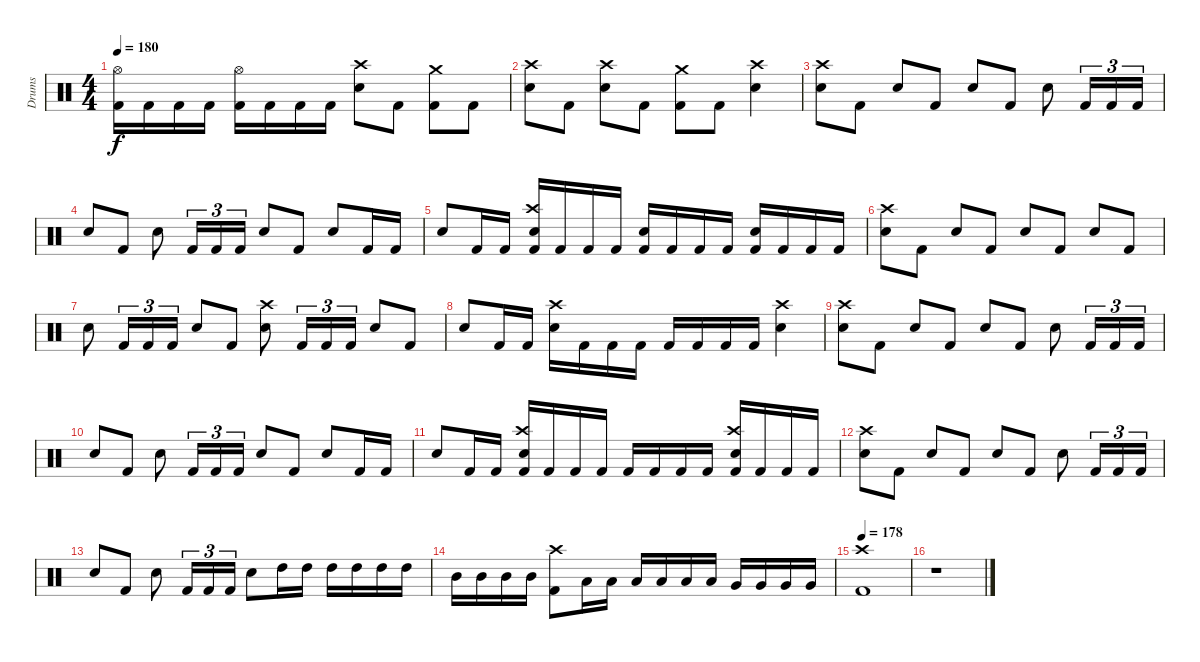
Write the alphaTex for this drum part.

\track ("Drums" "Drums") {instrument percussion}
\staff {score}
\articulation defaults
\ts (4 4)
\tempo 180
\clef neutral
\ks c
("Hi-Hat (open)" "Kick (hit) 2").16{dy f} "Kick (hit) 2".16 "Kick (hit) 2".16 "Kick (hit) 2".16 ("Hi-Hat (open)" "Kick (hit) 2").16 "Kick (hit) 2".16 "Kick (hit) 2".16 "Kick (hit) 2".16 ("Crash high (hit)" "Electric Snare (hit)").8 "Kick (hit) 2".8 ("Crash medium (hit)" "Kick (hit) 2").8 "Kick (hit) 2".8 |
("Crash high (hit)" "Electric Snare (hit)").8 "Kick (hit) 2".8 ("Crash high (hit)" "Electric Snare (hit)").8 "Kick (hit) 2".8 ("Crash medium (hit)" "Kick (hit) 2").8 "Kick (hit) 2".8 ("Crash high (hit)" "Electric Snare (hit)").4 |
("Crash high (hit)" "Electric Snare (hit)").8 "Kick (hit) 2".8 "Electric Snare (hit)".8 "Kick (hit) 2".8 "Electric Snare (hit)".8 "Kick (hit) 2".8 "Electric Snare (hit)".8 "Kick (hit) 2".16{tu (3 2)} "Kick (hit) 2".16{tu (3 2)} "Kick (hit) 2".16{tu (3 2)} |
"Electric Snare (hit)".8 "Kick (hit) 2".8 "Electric Snare (hit)".8 "Kick (hit) 2".16{tu (3 2)} "Kick (hit) 2".16{tu (3 2)} "Kick (hit) 2".16{tu (3 2)} "Electric Snare (hit)".8 "Kick (hit) 2".8 "Electric Snare (hit)".8 "Kick (hit) 2".16 "Kick (hit) 2".16 |
"Electric Snare (hit)".8 "Kick (hit) 2".16 "Kick (hit) 2".16 ("Crash high (hit)" "Electric Snare (hit)" "Kick (hit) 2").16 "Kick (hit) 2".16 "Kick (hit) 2".16 "Kick (hit) 2".16 ("Electric Snare (hit)" "Kick (hit) 2").16 "Kick (hit) 2".16 "Kick (hit) 2".16 "Kick (hit) 2".16 ("Electric Snare (hit)" "Kick (hit) 2").16 "Kick (hit) 2".16 "Kick (hit) 2".16 "Kick (hit) 2".16 |
("Crash high (hit)" "Electric Snare (hit)").8 "Kick (hit) 2".8 "Electric Snare (hit)".8 "Kick (hit) 2".8 "Electric Snare (hit)".8 "Kick (hit) 2".8 "Electric Snare (hit)".8 "Kick (hit) 2".8 |
"Electric Snare (hit)".8 "Kick (hit) 2".16{tu (3 2)} "Kick (hit) 2".16{tu (3 2)} "Kick (hit) 2".16{tu (3 2)} "Electric Snare (hit)".8 "Kick (hit) 2".8 ("Crash high (hit)" "Electric Snare (hit)").8 "Kick (hit) 2".16{tu (3 2)} "Kick (hit) 2".16{tu (3 2)} "Kick (hit) 2".16{tu (3 2)} "Electric Snare (hit)".8 "Kick (hit) 2".8 |
"Electric Snare (hit)".8 "Kick (hit) 2".16 "Kick (hit) 2".16 ("Crash high (hit)" "Electric Snare (hit)").16 "Kick (hit) 2".16 "Kick (hit) 2".16 "Kick (hit) 2".16 "Kick (hit) 2".16 "Kick (hit) 2".16 "Kick (hit) 2".16 "Kick (hit) 2".16 ("Crash high (hit)" "Electric Snare (hit)").4 |
("Crash high (hit)" "Electric Snare (hit)").8 "Kick (hit) 2".8 "Electric Snare (hit)".8 "Kick (hit) 2".8 "Electric Snare (hit)".8 "Kick (hit) 2".8 "Electric Snare (hit)".8 "Kick (hit) 2".16{tu (3 2)} "Kick (hit) 2".16{tu (3 2)} "Kick (hit) 2".16{tu (3 2)} |
"Electric Snare (hit)".8 "Kick (hit) 2".8 "Electric Snare (hit)".8 "Kick (hit) 2".16{tu (3 2)} "Kick (hit) 2".16{tu (3 2)} "Kick (hit) 2".16{tu (3 2)} "Electric Snare (hit)".8 "Kick (hit) 2".8 "Electric Snare (hit)".8 "Kick (hit) 2".16 "Kick (hit) 2".16 |
"Electric Snare (hit)".8 "Kick (hit) 2".16 "Kick (hit) 2".16 ("Crash high (hit)" "Electric Snare (hit)" "Kick (hit) 2").16 "Kick (hit) 2".16 "Kick (hit) 2".16 "Kick (hit) 2".16 "Kick (hit) 2".16 "Kick (hit) 2".16 "Kick (hit) 2".16 "Kick (hit) 2".16 ("Crash high (hit)" "Electric Snare (hit)" "Kick (hit) 2").16 "Kick (hit) 2".16 "Kick (hit) 2".16 "Kick (hit) 2".16 |
("Crash high (hit)" "Electric Snare (hit)").8 "Kick (hit) 2".8 "Electric Snare (hit)".8 "Kick (hit) 2".8 "Electric Snare (hit)".8 "Kick (hit) 2".8 "Electric Snare (hit)".8 "Kick (hit) 2".16{tu (3 2)} "Kick (hit) 2".16{tu (3 2)} "Kick (hit) 2".16{tu (3 2)} |
"Electric Snare (hit)".8 "Kick (hit) 2".8 "Electric Snare (hit)".8 "Kick (hit) 2".16{tu (3 2)} "Kick (hit) 2".16{tu (3 2)} "Kick (hit) 2".16{tu (3 2)} "Electric Snare (hit)".8 "High Tom (hit)".16 "High Tom (hit)".16 "High Tom (hit)".16 "High Tom (hit)".16 "High Tom (hit)".16 "High Tom (hit)".16 |
"Mid Tom (hit)".16 "Mid Tom (hit)".16 "Mid Tom (hit)".16 "Mid Tom (hit)".16 ("Crash high (hit)" "Kick (hit) 2").8 "Low Tom (hit)".16 "Low Tom (hit)".16 "Low Tom (hit)".16 "Low Tom (hit)".16 "Low Tom (hit)".16 "Low Tom (hit)".16 "Very Low Tom (hit)".16 "Very Low Tom (hit)".16 "Very Low Tom (hit)".16 "Very Low Tom (hit)".16 |
\tempo 178
("Crash high (hit)" "Kick (hit) 2").1 |
r.1
